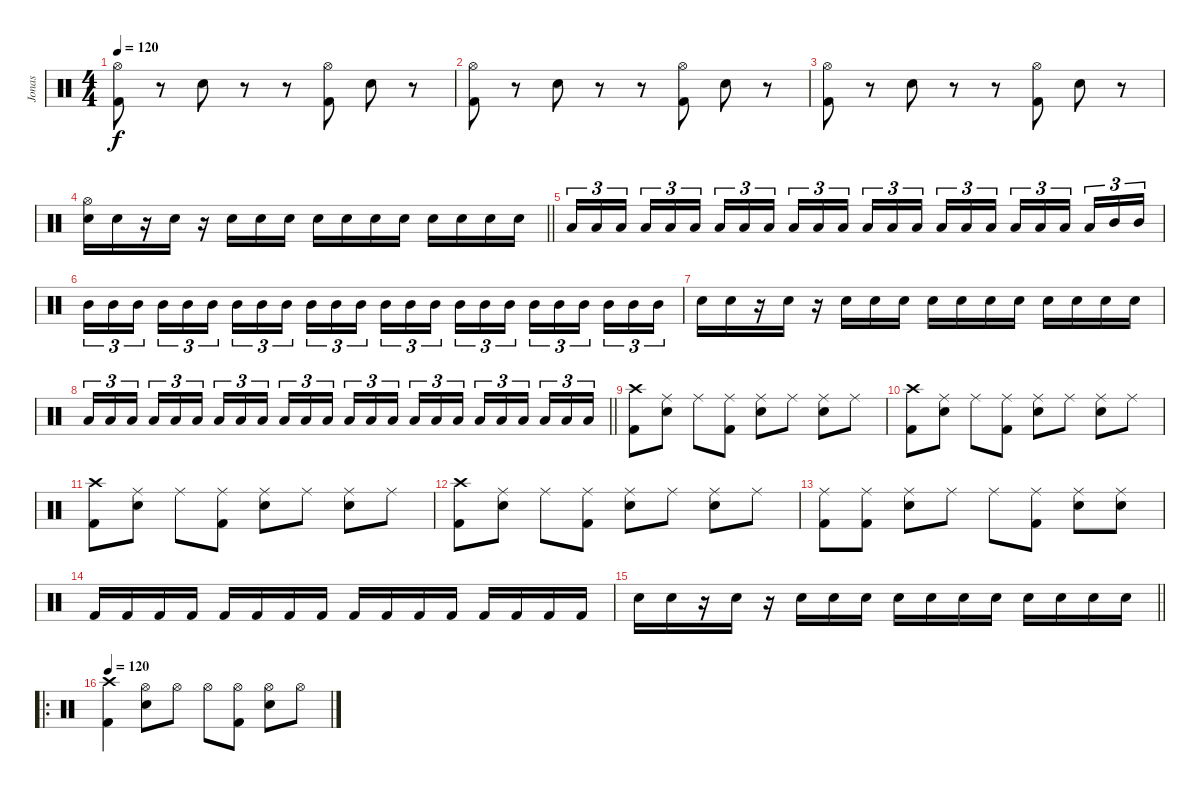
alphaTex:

\track ("Jonas" "Jonas") {instrument percussion}
\staff {score}
\articulation defaults
\ts (4 4)
\tempo 120
\clef neutral
\ks c
("Hi-Hat (open)" "Kick (hit) 2").8{dy f} r.8 "Snare (hit) 2".8 r.8 r.8 ("Hi-Hat (open)" "Kick (hit) 2").8 "Snare (hit) 2".8 r.8 |
("Hi-Hat (open)" "Kick (hit) 2").8 r.8 "Snare (hit) 2".8 r.8 r.8 ("Hi-Hat (open)" "Kick (hit) 2").8 "Snare (hit) 2".8 r.8 |
("Hi-Hat (open)" "Kick (hit) 2").8 r.8 "Snare (hit) 2".8 r.8 r.8 ("Hi-Hat (open)" "Kick (hit) 2").8 "Snare (hit) 2".8 r.8 |
\barLineRight lightlight
("Hi-Hat (open)" "Snare (hit) 2").16{volume 16} "Snare (hit) 2".16 r.16 "Snare (hit) 2".16 r.16 "Snare (hit) 2".16 "Snare (hit) 2".16 "Snare (hit) 2".16 "Snare (hit) 2".16 "Snare (hit) 2".16 "Snare (hit) 2".16 "Snare (hit) 2".16 "Snare (hit) 2".16 "Snare (hit) 2".16 "Snare (hit) 2".16 "Snare (hit) 2".16 |
"Low Floor Tom (hit)".16{tu (3 2)} "Low Tom (hit)".16{tu (3 2)} "Low Floor Tom (hit)".16{tu (3 2) beam splitsecondary} "Low Floor Tom (hit)".16{tu (3 2)} "Low Floor Tom (hit)".16{tu (3 2)} "Low Tom (hit)".16{tu (3 2)} "Low Floor Tom (hit)".16{tu (3 2)} "Low Floor Tom (hit)".16{tu (3 2)} "Low Floor Tom (hit)".16{tu (3 2) beam splitsecondary} "Low Tom (hit)".16{tu (3 2)} "Low Floor Tom (hit)".16{tu (3 2)} "Low Floor Tom (hit)".16{tu (3 2)} "Low Floor Tom (hit)".16{tu (3 2)} "Low Tom (hit)".16{tu (3 2)} "Low Floor Tom (hit)".16{tu (3 2) beam splitsecondary} "Low Floor Tom (hit)".16{tu (3 2)} "Low Floor Tom (hit)".16{tu (3 2)} "Low Floor Tom (hit)".16{tu (3 2)} "Low Tom (hit)".16{tu (3 2)} "Low Tom (hit)".16{tu (3 2)} "Low Tom (hit)".16{tu (3 2) beam splitsecondary} "Low Tom (hit)".16{tu (3 2)} "Mid Tom (hit)".16{tu (3 2)} "Mid Tom (hit)".16{tu (3 2)} |
"Mid Tom (hit)".16{tu (3 2)} "Mid Tom (hit)".16{tu (3 2)} "Mid Tom (hit)".16{tu (3 2) beam splitsecondary} "Mid Tom (hit)".16{tu (3 2)} "Mid Tom (hit)".16{tu (3 2)} "Mid Tom (hit)".16{tu (3 2)} "Mid Tom (hit)".16{tu (3 2)} "Mid Tom (hit)".16{tu (3 2)} "Mid Tom (hit)".16{tu (3 2) beam splitsecondary} "Mid Tom (hit)".16{tu (3 2)} "Mid Tom (hit)".16{tu (3 2)} "Mid Tom (hit)".16{tu (3 2)} "Mid Tom (hit)".16{tu (3 2)} "Mid Tom (hit)".16{tu (3 2)} "Mid Tom (hit)".16{tu (3 2) beam splitsecondary} "Mid Tom (hit)".16{tu (3 2)} "Mid Tom (hit)".16{tu (3 2)} "Mid Tom (hit)".16{tu (3 2)} "Mid Tom (hit)".16{tu (3 2)} "Mid Tom (hit)".16{tu (3 2)} "Mid Tom (hit)".16{tu (3 2) beam splitsecondary} "Mid Tom (hit)".16{tu (3 2)} "Mid Tom (hit)".16{tu (3 2)} "Mid Tom (hit)".16{tu (3 2)} |
"Snare (hit) 2".16{volume 16} "Snare (hit) 2".16 r.16 "Snare (hit) 2".16 r.16 "Snare (hit) 2".16 "Snare (hit) 2".16 "Snare (hit) 2".16 "Snare (hit) 2".16 "Snare (hit) 2".16 "Snare (hit) 2".16 "Snare (hit) 2".16 "Snare (hit) 2".16 "Snare (hit) 2".16 "Snare (hit) 2".16 "Snare (hit) 2".16 |
\barLineRight lightlight "Low Tom (hit)".16{tu (3 2)} "Low Floor Tom (hit)".16{tu (3 2)} "Low Tom (hit)".16{tu (3 2) beam splitsecondary} "Low Floor Tom (hit)".16{tu (3 2)} "Low Tom (hit)".16{tu (3 2)} "Low Floor Tom (hit)".16{tu (3 2)} "Low Tom (hit)".16{tu (3 2)} "Low Floor Tom (hit)".16{tu (3 2)} "Low Tom (hit)".16{tu (3 2) beam splitsecondary} "Low Floor Tom (hit)".16{tu (3 2)} "Low Tom (hit)".16{tu (3 2)} "Low Floor Tom (hit)".16{tu (3 2)} "Low Tom (hit)".16{tu (3 2)} "Low Floor Tom (hit)".16{tu (3 2)} "Low Tom (hit)".16{tu (3 2) beam splitsecondary} "Low Floor Tom (hit)".16{tu (3 2)} "Low Tom (hit)".16{tu (3 2)} "Low Floor Tom (hit)".16{tu (3 2)} "Low Tom (hit)".16{tu (3 2)} "Low Floor Tom (hit)".16{tu (3 2)} "Low Tom (hit)".16{tu (3 2) beam splitsecondary} "Low Floor Tom (hit)".16{tu (3 2)} "Low Tom (hit)".16{tu (3 2)} "Low Floor Tom (hit)".16{tu (3 2)}
|
("Crash high (hit)" "Kick (hit) 2").8 ("Ride (middle)" "Snare (hit) 2").8 "Ride (middle)".8 ("Ride (middle)" "Kick (hit) 2").8 ("Ride (middle)" "Snare (hit) 2").8 "Ride (middle)".8 ("Ride (middle)" "Snare (hit) 2").8 "Ride (middle)".8 |
("Crash high (hit)" "Kick (hit) 2").8 ("Ride (middle)" "Snare (hit) 2").8 "Ride (middle)".8 ("Ride (middle)" "Kick (hit) 2").8 ("Ride (middle)" "Snare (hit) 2").8 "Ride (middle)".8 ("Ride (middle)" "Snare (hit) 2").8 "Ride (middle)".8 |
("Crash high (hit)" "Kick (hit) 2").8 ("Ride (middle)" "Snare (hit) 2").8 "Ride (middle)".8 ("Ride (middle)" "Kick (hit) 2").8 ("Ride (middle)" "Snare (hit) 2").8 "Ride (middle)".8 ("Ride (middle)" "Snare (hit) 2").8 "Ride (middle)".8 |
("Crash high (hit)" "Kick (hit) 2").8 ("Ride (middle)" "Snare (hit) 2").8 "Ride (middle)".8 ("Ride (middle)" "Kick (hit) 2").8 ("Ride (middle)" "Snare (hit) 2").8 "Ride (middle)".8 ("Ride (middle)" "Snare (hit) 2").8 "Ride (middle)".8 |
("Ride (middle)" "Kick (hit) 2").8 ("Ride (middle)" "Kick (hit) 2").8 ("Ride (middle)" "Snare (hit) 2").8 "Ride (middle)".8 "Ride (middle)".8 ("Ride (middle)" "Kick (hit) 2").8 ("Ride (middle)" "Snare (hit) 2").8 ("Ride (middle)" "Snare (hit) 2").8 |
"Kick (hit) 2".16 "Kick (hit) 2".16 "Kick (hit) 2".16 "Kick (hit) 2".16 "Kick (hit) 2".16 "Kick (hit) 2".16 "Kick (hit) 2".16 "Kick (hit) 2".16 "Kick (hit) 2".16 "Kick (hit) 2".16 "Kick (hit) 2".16 "Kick (hit) 2".16 "Kick (hit) 2".16 "Kick (hit) 2".16 "Kick (hit) 2".16 "Kick (hit) 2".16 |
\barLineRight lightlight "Snare (hit) 2".16{volume 16} "Snare (hit) 2".16
r.16 "Snare (hit) 2".16 r.16 "Snare (hit) 2".16 "Snare (hit) 2".16 "Snare (hit) 2".16 "Snare (hit) 2".16 "Snare (hit) 2".16 "Snare (hit) 2".16 "Snare (hit) 2".16 "Snare (hit) 2".16 "Snare (hit) 2".16 "Snare (hit) 2".16 "Snare (hit) 2".16 |
\ro
\tempo 120
("Crash high (hit)" "Kick (hit) 2").4 ("Hi-Hat (open)" "Snare (hit) 2").8 "Hi-Hat (open)".8 "Hi-Hat (open)".8 ("Hi-Hat (open)" "Kick (hit) 2").8 ("Hi-Hat (open)" "Snare (hit) 2").8 "Hi-Hat (open)".8
